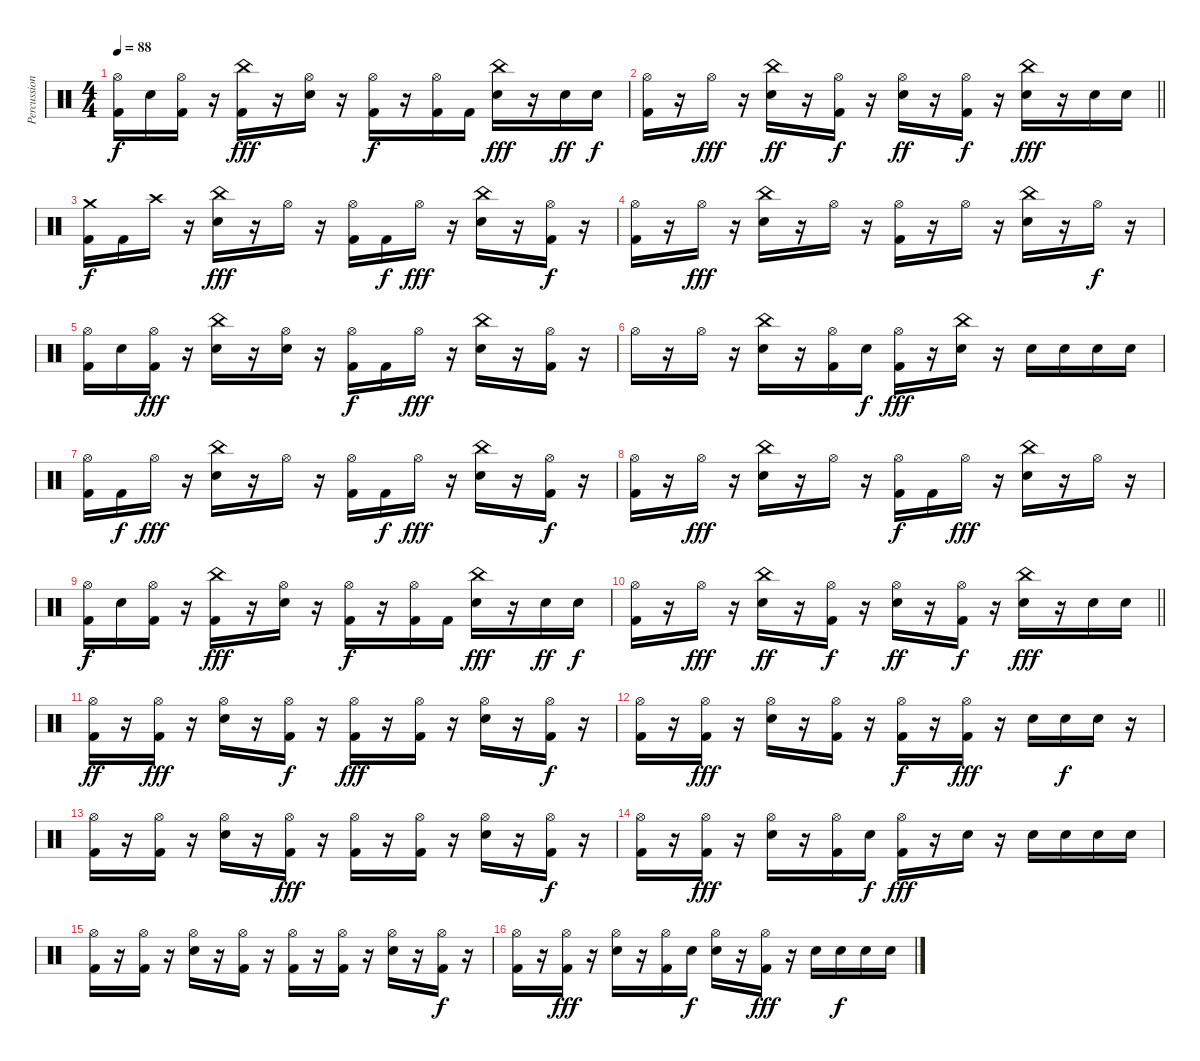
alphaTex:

\track ("Percussion" "Percussion") {instrument percussion}
\staff {score}
\articulation defaults
\ts (4 4)
\tempo 88
\clef neutral
\ks c
("Hi-Hat (open)" "Kick (hit) 2").16{dy f} "Snare (hit) 2".16 ("Hi-Hat (open)" "Kick (hit) 2").16 r.16 ("China (hit)" "Kick (hit) 2").16{dy fff} r.16 ("Hi-Hat (open)" "Snare (hit) 2").16 r.16 ("Hi-Hat (open)" "Kick (hit) 2").16{dy f} r.16 ("Hi-Hat (open)" "Kick (hit) 2").16 "Kick (hit) 2".16 ("China (hit)" "Snare (hit) 2").16{dy fff} r.16 "Snare (hit) 2".16{dy ff} "Snare (hit) 2".16{dy f} |
\barLineRight lightlight
("Hi-Hat (open)" "Kick (hit) 2").16 r.16 "Hi-Hat (open)".16{dy fff} r.16 ("China (hit)" "Snare (hit) 2").16{dy ff} r.16 ("Hi-Hat (open)" "Kick (hit) 2").16{dy f} r.16 ("Hi-Hat (open)" "Snare (hit) 2").16{dy ff} r.16 ("Hi-Hat (open)" "Kick (hit) 2").16{dy f} r.16 ("China (hit)" "Snare (hit) 2").16{dy fff} r.16 "Snare (hit) 2".16 "Snare (hit) 2".16 |
("Crash medium (hit)" "Kick (hit) 2").16{dy f volume 12} "Kick (hit) 2".16 "Crash high (hit)".16 r.16 ("China (hit)" "Snare (hit) 2").16{dy fff} r.16 "Hi-Hat (open)".16 r.16 ("Hi-Hat (open)" "Kick (hit) 2").16 "Kick (hit) 2".16{dy f} "Hi-Hat (open)".16{dy fff} r.16 ("China (hit)" "Snare (hit) 2").16 r.16 ("Hi-Hat (open)" "Kick (hit) 2").16{dy f} r.16 |
("Hi-Hat (open)" "Kick (hit) 2").16 r.16 "Hi-Hat (open)".16{dy fff} r.16 ("China (hit)" "Snare (hit) 2").16 r.16 "Hi-Hat (open)".16 r.16 ("Hi-Hat (open)" "Kick (hit) 2").16 r.16 "Hi-Hat (open)".16 r.16 ("China (hit)" "Snare (hit) 2").16 r.16 "Hi-Hat (open)".16{dy f} r.16 |
("Hi-Hat (open)" "Kick (hit) 2").16 "Snare (hit) 2".16 ("Hi-Hat (open)" "Kick (hit) 2").16{dy fff} r.16 ("China (hit)" "Snare (hit) 2").16 r.16 ("Hi-Hat (open)" "Snare (hit) 2").16 r.16 ("Hi-Hat (open)" "Kick (hit) 2").16{dy f} "Kick (hit) 2".16 "Hi-Hat (open)".16{dy fff} r.16 ("China (hit)" "Snare (hit) 2").16 r.16 ("Hi-Hat (open)" "Kick (hit) 2").16 r.16 |
"Hi-Hat (open)".16 r.16 "Hi-Hat (open)".16 r.16 ("China (hit)" "Snare (hit) 2").16 r.16 ("Hi-Hat (open)" "Kick (hit) 2").16 "Snare (hit) 2".16{dy f} ("Hi-Hat (open)" "Kick (hit) 2").16{dy fff} r.16 ("China (hit)" "Snare (hit) 2").16 r.16 "Snare (hit) 2".16 "Snare (hit) 2".16 "Snare (hit) 2".16 "Snare (hit) 2".16 |
("Hi-Hat (open)" "Kick (hit) 2").16 "Kick (hit) 2".16{dy f} "Hi-Hat (open)".16{dy fff} r.16 ("China (hit)" "Snare (hit) 2").16 r.16 "Hi-Hat (open)".16 r.16 ("Hi-Hat (open)" "Kick (hit) 2").16 "Kick (hit) 2".16{dy f} "Hi-Hat (open)".16{dy fff} r.16 ("China (hit)" "Snare (hit) 2").16 r.16 ("Hi-Hat (open)" "Kick (hit) 2").16{dy f} r.16 |
("Hi-Hat (open)" "Kick (hit) 2").16 r.16 "Hi-Hat (open)".16{dy fff} r.16 ("China (hit)" "Snare (hit) 2").16 r.16 "Hi-Hat (open)".16 r.16 ("Hi-Hat (open)" "Kick (hit) 2").16{dy f} "Kick (hit) 2".16 "Hi-Hat (open)".16{dy fff} r.16 ("China (hit)" "Snare (hit) 2").16 r.16 "Hi-Hat (open)".16 r.16 |
("Hi-Hat (open)" "Kick (hit) 2").16{dy f} "Snare (hit) 2".16 ("Hi-Hat (open)" "Kick (hit) 2").16 r.16 ("China (hit)" "Kick (hit) 2").16{dy fff} r.16 ("Hi-Hat (open)" "Snare (hit) 2").16 r.16 ("Hi-Hat (open)" "Kick (hit) 2").16{dy f} r.16 ("Hi-Hat (open)" "Kick (hit) 2").16 "Kick (hit) 2".16 ("China (hit)" "Snare (hit) 2").16{dy fff} r.16 "Snare (hit) 2".16{dy ff} "Snare (hit) 2".16{dy f} |
\barLineRight lightlight
("Hi-Hat (open)" "Kick (hit) 2").16 r.16 "Hi-Hat (open)".16{dy fff} r.16 ("China (hit)" "Snare (hit) 2").16{dy ff} r.16 ("Hi-Hat (open)" "Kick (hit) 2").16{dy f} r.16 ("Hi-Hat (open)" "Snare (hit) 2").16{dy ff} r.16 ("Hi-Hat (open)" "Kick (hit) 2").16{dy f} r.16 ("China (hit)" "Snare (hit) 2").16{dy fff} r.16 "Snare (hit) 2".16 "Snare (hit) 2".16 |
("Hi-Hat (open)" "Kick (hit) 2").16{dy ff} r.16 ("Hi-Hat (open)" "Kick (hit) 2").16{dy fff} r.16 ("Hi-Hat (open)" "Snare (hit) 2").16 r.16 ("Hi-Hat (open)" "Kick (hit) 2").16{dy f} r.16 ("Hi-Hat (open)" "Kick (hit) 2").16{dy fff} r.16 ("Hi-Hat (open)" "Kick (hit) 2").16 r.16 ("Hi-Hat (open)" "Snare (hit) 2").16 r.16 ("Hi-Hat (open)" "Kick (hit) 2").16{dy f} r.16 |
("Hi-Hat (open)" "Kick (hit) 2").16 r.16 ("Hi-Hat (open)" "Kick (hit) 2").16{dy fff} r.16 ("Hi-Hat (open)" "Snare (hit) 2").16 r.16 ("Hi-Hat (open)" "Kick (hit) 2").16 r.16 ("Hi-Hat (open)" "Kick (hit) 2").16{dy f} r.16 ("Hi-Hat (open)" "Kick (hit) 2").16{dy fff} r.16 "Snare (hit) 2".16 "Snare (hit) 2".16{dy f} "Snare (hit) 2".16 r.16 |
("Hi-Hat (open)" "Kick (hit) 2").16 r.16 ("Hi-Hat (open)" "Kick (hit) 2").16 r.16 ("Hi-Hat (open)" "Snare (hit) 2").16 r.16 ("Hi-Hat (open)" "Kick (hit) 2").16{dy fff} r.16 ("Hi-Hat (open)" "Kick (hit) 2").16 r.16 ("Hi-Hat (open)" "Kick (hit) 2").16 r.16 ("Hi-Hat (open)" "Snare (hit) 2").16 r.16 ("Hi-Hat (open)" "Kick (hit) 2").16{dy f} r.16 |
("Hi-Hat (open)" "Kick (hit) 2").16 r.16 ("Hi-Hat (open)" "Kick (hit) 2").16{dy fff} r.16 ("Hi-Hat (open)" "Snare (hit) 2").16 r.16 ("Hi-Hat (open)" "Kick (hit) 2").16 "Snare (hit) 2".16{dy f} ("Hi-Hat (open)" "Kick (hit) 2").16{dy fff} r.16 "Snare (hit) 2".16 r.16 "Snare (hit) 2".16 "Snare (hit) 2".16 "Snare (hit) 2".16 "Snare (hit) 2".16 |
("Hi-Hat (open)" "Kick (hit) 2").16 r.16 ("Hi-Hat (open)" "Kick (hit) 2").16 r.16 ("Hi-Hat (open)" "Snare (hit) 2").16 r.16 ("Hi-Hat (open)" "Kick (hit) 2").16 r.16 ("Hi-Hat (open)" "Kick (hit) 2").16 r.16 ("Hi-Hat (open)" "Kick (hit) 2").16 r.16 ("Hi-Hat (open)" "Snare (hit) 2").16 r.16 ("Hi-Hat (open)" "Kick (hit) 2").16{dy f} r.16 |
("Hi-Hat (open)" "Kick (hit) 2").16 r.16 ("Hi-Hat (open)" "Kick (hit) 2").16{dy fff} r.16 ("Hi-Hat (open)" "Snare (hit) 2").16 r.16 ("Hi-Hat (open)" "Kick (hit) 2").16 "Snare (hit) 2".16{dy f} ("Hi-Hat (open)" "Snare (hit) 2").16 r.16 ("Hi-Hat (open)" "Kick (hit) 2").16{dy fff} r.16 "Snare (hit) 2".16 "Snare (hit) 2".16{dy f} "Snare (hit) 2".16 "Snare (hit) 2".16
